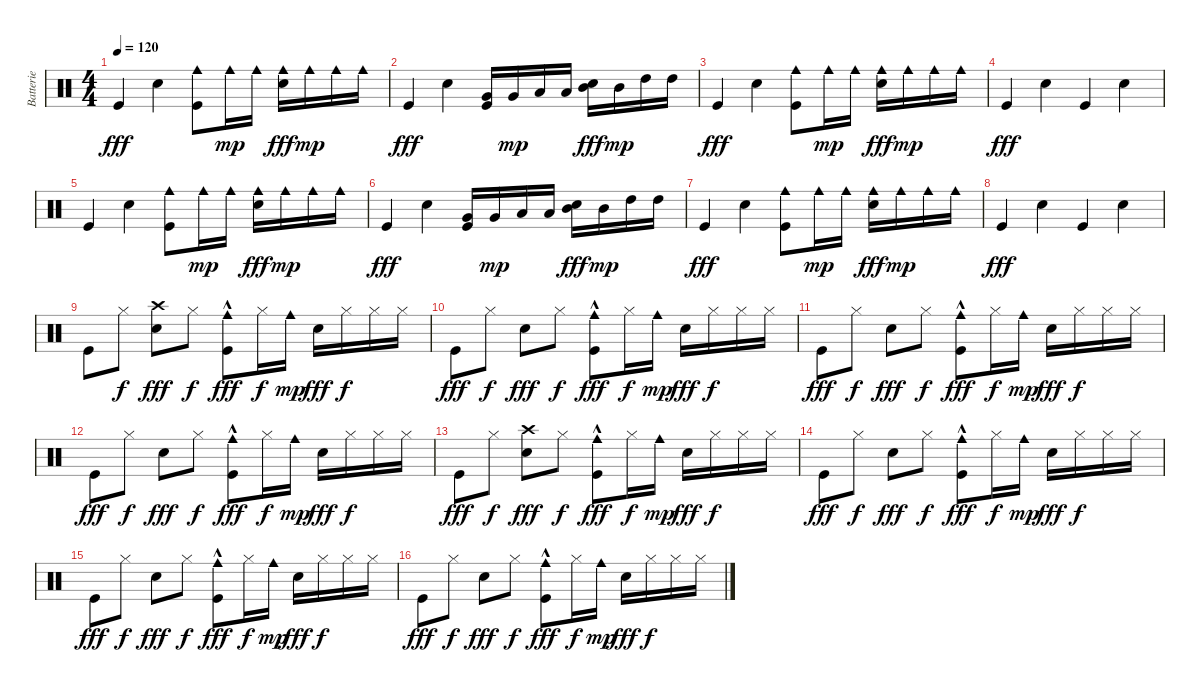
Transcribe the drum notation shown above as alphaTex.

\track ("Batterie" "Batterie") {instrument percussion}
\staff {score}
\articulation defaults
\ts (4 4)
\tempo 120
\clef neutral
\ks c "Kick (hit)".4{dy fff} "Snare (hit) 2".4
("Cowbell medium (hit)" "Kick (hit)").8 "Cowbell medium (hit)".16{dy mp} "Cowbell medium (hit)".16 ("Cowbell medium (hit)" "Snare (hit) 2").16{dy fff} "Cowbell medium (hit)".16{dy mp} "Cowbell medium (hit)".16 "Cowbell medium (hit)".16 |
"Kick (hit)".4{dy fff} "Snare (hit) 2".4 ("Very Low Tom (hit)" "Kick (hit)").16 "Very Low Tom (hit)".16{dy mp} "Low Tom (hit)".16 "Low Tom (hit)".16 ("Mid Tom (hit)" "Snare (hit) 2").16{dy fff} "Mid Tom (hit)".16{dy mp} "High Tom (hit)".16 "High Tom (hit)".16 |
"Kick (hit)".4{dy fff} "Snare (hit) 2".4 ("Cowbell medium (hit)" "Kick (hit)").8 "Cowbell medium (hit)".16{dy mp} "Cowbell medium (hit)".16 ("Cowbell medium (hit)" "Snare (hit) 2").16{dy fff} "Cowbell medium (hit)".16{dy mp} "Cowbell medium (hit)".16 "Cowbell medium (hit)".16 |
"Kick (hit)".4{dy fff} "Snare (hit) 2".4 "Kick (hit)".4 "Snare (hit) 2".4 |
"Kick (hit)".4 "Snare (hit) 2".4 ("Cowbell medium (hit)" "Kick (hit)").8 "Cowbell medium (hit)".16{dy mp} "Cowbell medium (hit)".16 ("Cowbell medium (hit)" "Snare (hit) 2").16{dy fff} "Cowbell medium (hit)".16{dy mp} "Cowbell medium (hit)".16 "Cowbell medium (hit)".16 |
"Kick (hit)".4{dy fff} "Snare (hit) 2".4 ("Very Low Tom (hit)" "Kick (hit)").16 "Very Low Tom (hit)".16{dy mp} "Low Tom (hit)".16 "Low Tom (hit)".16 ("Mid Tom (hit)" "Snare (hit) 2").16{dy fff} "Mid Tom (hit)".16{dy mp} "High Tom (hit)".16 "High Tom (hit)".16 |
"Kick (hit)".4{dy fff} "Snare (hit) 2".4 ("Cowbell medium (hit)" "Kick (hit)").8 "Cowbell medium (hit)".16{dy mp} "Cowbell medium (hit)".16 ("Cowbell medium (hit)" "Snare (hit) 2").16{dy fff} "Cowbell medium (hit)".16{dy mp} "Cowbell medium (hit)".16 "Cowbell medium (hit)".16 |
"Kick (hit)".4{dy fff} "Snare (hit) 2".4 "Kick (hit)".4 "Snare (hit) 2".4 |
"Kick (hit)".8 "Hi-Hat (closed)".8{dy f} ("Crash high (hit)" "Snare (hit) 2").8{dy fff} "Hi-Hat (closed)".8{dy f} ("Cowbell medium (hit)"{hac} "Kick (hit)").8{dy fff} "Hi-Hat (closed)".16{dy f} "Cowbell medium (hit)".16{dy mp} "Snare (hit) 2".16{dy fff} "Hi-Hat (closed)".16{dy f} "Hi-Hat (closed)".16 "Hi-Hat (closed)".16 |
"Kick (hit)".8{dy fff} "Hi-Hat (closed)".8{dy f} "Snare (hit) 2".8{dy fff} "Hi-Hat (closed)".8{dy f} ("Cowbell medium (hit)"{hac} "Kick (hit)").8{dy fff} "Hi-Hat (closed)".16{dy f} "Cowbell medium (hit)".16{dy mp} "Snare (hit) 2".16{dy fff} "Hi-Hat (closed)".16{dy f} "Hi-Hat (closed)".16 "Hi-Hat (closed)".16 |
"Kick (hit)".8{dy fff} "Hi-Hat (closed)".8{dy f} "Snare (hit) 2".8{dy fff} "Hi-Hat (closed)".8{dy f} ("Cowbell medium (hit)"{hac} "Kick (hit)").8{dy fff} "Hi-Hat (closed)".16{dy f} "Cowbell medium (hit)".16{dy mp} "Snare (hit) 2".16{dy fff} "Hi-Hat (closed)".16{dy f} "Hi-Hat (closed)".16 "Hi-Hat (closed)".16 |
"Kick (hit)".8{dy fff} "Hi-Hat (closed)".8{dy f} "Snare (hit) 2".8{dy fff} "Hi-Hat (closed)".8{dy f} ("Cowbell medium (hit)"{hac} "Kick (hit)").8{dy fff} "Hi-Hat (closed)".16{dy f} "Cowbell medium (hit)".16{dy mp} "Snare (hit) 2".16{dy fff} "Hi-Hat (closed)".16{dy f} "Hi-Hat (closed)".16 "Hi-Hat (closed)".16 |
"Kick (hit)".8{dy fff} "Hi-Hat (closed)".8{dy f} ("Crash high (hit)" "Snare (hit) 2").8{dy fff} "Hi-Hat (closed)".8{dy f} ("Cowbell medium (hit)"{hac} "Kick (hit)").8{dy fff} "Hi-Hat (closed)".16{dy f} "Cowbell medium (hit)".16{dy mp} "Snare (hit) 2".16{dy fff} "Hi-Hat (closed)".16{dy f} "Hi-Hat (closed)".16 "Hi-Hat (closed)".16 |
"Kick (hit)".8{dy fff} "Hi-Hat (closed)".8{dy f} "Snare (hit) 2".8{dy fff} "Hi-Hat (closed)".8{dy f} ("Cowbell medium (hit)"{hac} "Kick (hit)").8{dy fff} "Hi-Hat (closed)".16{dy f} "Cowbell medium (hit)".16{dy mp} "Snare (hit) 2".16{dy fff} "Hi-Hat (closed)".16{dy f} "Hi-Hat (closed)".16 "Hi-Hat (closed)".16 |
"Kick (hit)".8{dy fff} "Hi-Hat (closed)".8{dy f} "Snare (hit) 2".8{dy fff} "Hi-Hat (closed)".8{dy f} ("Cowbell medium (hit)"{hac} "Kick (hit)").8{dy fff} "Hi-Hat (closed)".16{dy f} "Cowbell medium (hit)".16{dy mp} "Snare (hit) 2".16{dy fff} "Hi-Hat (closed)".16{dy f} "Hi-Hat (closed)".16 "Hi-Hat (closed)".16 |
"Kick (hit)".8{dy fff} "Hi-Hat (closed)".8{dy f} "Snare (hit) 2".8{dy fff} "Hi-Hat (closed)".8{dy f} ("Cowbell medium (hit)"{hac} "Kick (hit)").8{dy fff} "Hi-Hat (closed)".16{dy f} "Cowbell medium (hit)".16{dy mp} "Snare (hit) 2".16{dy fff} "Hi-Hat (closed)".16{dy f} "Hi-Hat (closed)".16 "Hi-Hat (closed)".16
